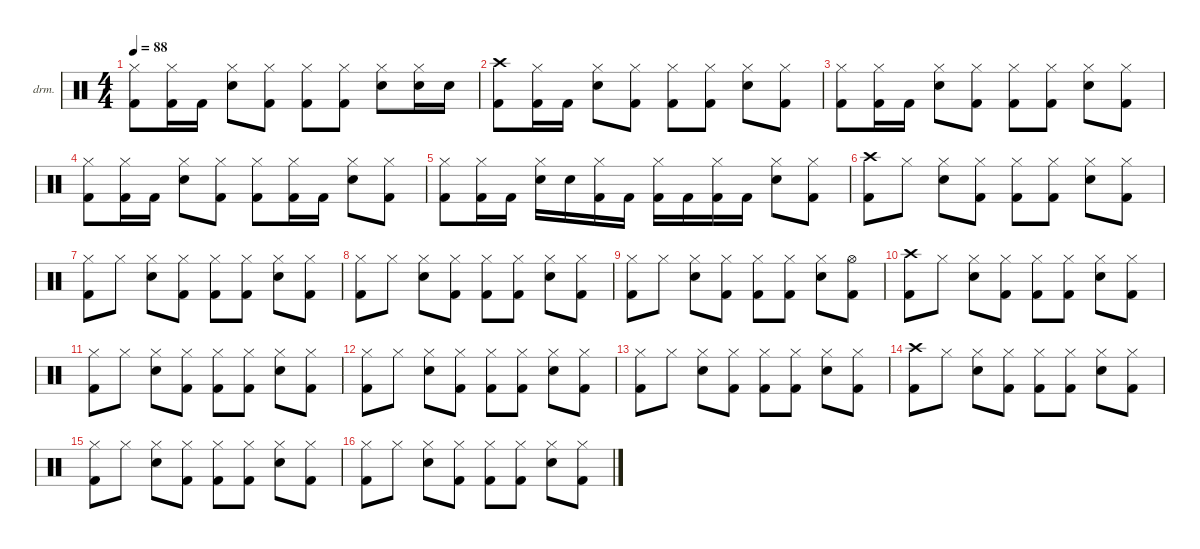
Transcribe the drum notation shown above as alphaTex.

\defaultSystemsLayout 4
\hideDynamics
\bracketExtendMode nobrackets
\firstSystemTrackNameOrientation horizontal
\otherSystemsTrackNameOrientation horizontal
\track ("Drums" "drm.") {instrument percussion}
\staff {score}
\articulation defaults
\ts (4 4)
\tempo 88
\clef neutral
\ks c
("Hi-Hat (closed)" "Kick (hit) 2").8{dy f} ("Hi-Hat (closed)" "Kick (hit) 2").16 "Kick (hit) 2".16 ("Hi-Hat (closed)" "Snare (hit) 2").8 ("Hi-Hat (closed)" "Kick (hit) 2").8 ("Hi-Hat (closed)" "Kick (hit) 2").8 ("Hi-Hat (closed)" "Kick (hit) 2").8 ("Hi-Hat (closed)" "Snare (hit) 2").8 ("Hi-Hat (closed)" "Snare (hit) 2").16 "Snare (hit) 2".16 |
("Crash high (hit)" "Kick (hit) 2").8 ("Hi-Hat (closed)" "Kick (hit) 2").16 "Kick (hit) 2".16 ("Hi-Hat (closed)" "Snare (hit) 2").8 ("Hi-Hat (closed)" "Kick (hit) 2").8 ("Hi-Hat (closed)" "Kick (hit) 2").8 ("Hi-Hat (closed)" "Kick (hit) 2").8 ("Hi-Hat (closed)" "Snare (hit) 2").8 ("Hi-Hat (closed)" "Kick (hit) 2").8 |
("Hi-Hat (closed)" "Kick (hit) 2").8 ("Hi-Hat (closed)" "Kick (hit) 2").16 "Kick (hit) 2".16 ("Hi-Hat (closed)" "Snare (hit) 2").8 ("Hi-Hat (closed)" "Kick (hit) 2").8 ("Hi-Hat (closed)" "Kick (hit) 2").8 ("Hi-Hat (closed)" "Kick (hit) 2").8 ("Hi-Hat (closed)" "Snare (hit) 2").8 ("Hi-Hat (closed)" "Kick (hit) 2").8 |
("Hi-Hat (closed)" "Kick (hit) 2").8 ("Hi-Hat (closed)" "Kick (hit) 2").16 "Kick (hit) 2".16 ("Hi-Hat (closed)" "Snare (hit) 2").8 ("Hi-Hat (closed)" "Kick (hit) 2").8 ("Hi-Hat (closed)" "Kick (hit) 2").8 ("Hi-Hat (closed)" "Kick (hit) 2").16 "Kick (hit) 2".16 ("Hi-Hat (closed)" "Snare (hit) 2").8 ("Hi-Hat (closed)" "Kick (hit) 2").8 |
("Hi-Hat (closed)" "Kick (hit) 2").8 ("Hi-Hat (closed)" "Kick (hit) 2").16 "Kick (hit) 2".16 ("Hi-Hat (closed)" "Snare (hit) 2").16 "Snare (hit) 2".16 ("Hi-Hat (closed)" "Kick (hit) 2").16 "Kick (hit) 2".16 ("Hi-Hat (closed)" "Kick (hit) 2").16 "Kick (hit) 2".16 ("Hi-Hat (closed)" "Kick (hit) 2").16 "Kick (hit) 2".16 ("Hi-Hat (closed)" "Snare (hit) 2").8 ("Hi-Hat (closed)" "Kick (hit) 2").8 |
("Crash high (hit)" "Kick (hit) 2").8 "Hi-Hat (closed)".8 ("Hi-Hat (closed)" "Snare (hit) 2").8 ("Hi-Hat (closed)" "Kick (hit) 2").8 ("Hi-Hat (closed)" "Kick (hit) 2").8 ("Hi-Hat (closed)" "Kick (hit) 2").8 ("Hi-Hat (closed)" "Snare (hit) 2").8 ("Hi-Hat (closed)" "Kick (hit) 2").8 |
("Hi-Hat (closed)" "Kick (hit) 2").8 "Hi-Hat (closed)".8 ("Hi-Hat (closed)" "Snare (hit) 2").8 ("Hi-Hat (closed)" "Kick (hit) 2").8 ("Hi-Hat (closed)" "Kick (hit) 2").8 ("Hi-Hat (closed)" "Kick (hit) 2").8 ("Hi-Hat (closed)" "Snare (hit) 2").8 ("Hi-Hat (closed)" "Kick (hit) 2").8 |
("Hi-Hat (closed)" "Kick (hit) 2").8 "Hi-Hat (closed)".8 ("Hi-Hat (closed)" "Snare (hit) 2").8 ("Hi-Hat (closed)" "Kick (hit) 2").8 ("Hi-Hat (closed)" "Kick (hit) 2").8 ("Hi-Hat (closed)" "Kick (hit) 2").8 ("Hi-Hat (closed)" "Snare (hit) 2").8 ("Hi-Hat (closed)" "Kick (hit) 2").8 |
("Hi-Hat (closed)" "Kick (hit) 2").8 "Hi-Hat (closed)".8 ("Hi-Hat (closed)" "Snare (hit) 2").8 ("Hi-Hat (closed)" "Kick (hit) 2").8 ("Hi-Hat (closed)" "Kick (hit) 2").8 ("Hi-Hat (closed)" "Kick (hit) 2").8 ("Hi-Hat (closed)" "Snare (hit) 2").8 ("Hi-Hat (open)" "Kick (hit) 2").8 |
("Crash high (hit)" "Kick (hit) 2").8 "Hi-Hat (closed)".8 ("Hi-Hat (closed)" "Snare (hit) 2").8 ("Hi-Hat (closed)" "Kick (hit) 2").8 ("Hi-Hat (closed)" "Kick (hit) 2").8 ("Hi-Hat (closed)" "Kick (hit) 2").8 ("Hi-Hat (closed)" "Snare (hit) 2").8 ("Hi-Hat (closed)" "Kick (hit) 2").8 |
("Hi-Hat (closed)" "Kick (hit) 2").8 "Hi-Hat (closed)".8 ("Hi-Hat (closed)" "Snare (hit) 2").8 ("Hi-Hat (closed)" "Kick (hit) 2").8 ("Hi-Hat (closed)" "Kick (hit) 2").8 ("Hi-Hat (closed)" "Kick (hit) 2").8 ("Hi-Hat (closed)" "Snare (hit) 2").8 ("Hi-Hat (closed)" "Kick (hit) 2").8 |
("Hi-Hat (closed)" "Kick (hit) 2").8 "Hi-Hat (closed)".8 ("Hi-Hat (closed)" "Snare (hit) 2").8 ("Hi-Hat (closed)" "Kick (hit) 2").8 ("Hi-Hat (closed)" "Kick (hit) 2").8 ("Hi-Hat (closed)" "Kick (hit) 2").8 ("Hi-Hat (closed)" "Snare (hit) 2").8 ("Hi-Hat (closed)" "Kick (hit) 2").8 |
("Hi-Hat (closed)" "Kick (hit) 2").8 "Hi-Hat (closed)".8 ("Hi-Hat (closed)" "Snare (hit) 2").8 ("Hi-Hat (closed)" "Kick (hit) 2").8 ("Hi-Hat (closed)" "Kick (hit) 2").8 ("Hi-Hat (closed)" "Kick (hit) 2").8 ("Hi-Hat (closed)" "Snare (hit) 2").8 ("Hi-Hat (closed)" "Kick (hit) 2").8 |
("Crash high (hit)" "Kick (hit) 2").8 "Hi-Hat (closed)".8 ("Hi-Hat (closed)" "Snare (hit) 2").8 ("Hi-Hat (closed)" "Kick (hit) 2").8 ("Hi-Hat (closed)" "Kick (hit) 2").8 ("Hi-Hat (closed)" "Kick (hit) 2").8 ("Hi-Hat (closed)" "Snare (hit) 2").8 ("Hi-Hat (closed)" "Kick (hit) 2").8 |
("Hi-Hat (closed)" "Kick (hit) 2").8 "Hi-Hat (closed)".8 ("Hi-Hat (closed)" "Snare (hit) 2").8 ("Hi-Hat (closed)" "Kick (hit) 2").8 ("Hi-Hat (closed)" "Kick (hit) 2").8 ("Hi-Hat (closed)" "Kick (hit) 2").8 ("Hi-Hat (closed)" "Snare (hit) 2").8 ("Hi-Hat (closed)" "Kick (hit) 2").8 |
("Hi-Hat (closed)" "Kick (hit) 2").8 "Hi-Hat (closed)".8 ("Hi-Hat (closed)" "Snare (hit) 2").8 ("Hi-Hat (closed)" "Kick (hit) 2").8 ("Hi-Hat (closed)" "Kick (hit) 2").8 ("Hi-Hat (closed)" "Kick (hit) 2").8 ("Hi-Hat (closed)" "Snare (hit) 2").8 ("Hi-Hat (closed)" "Kick (hit) 2").8
